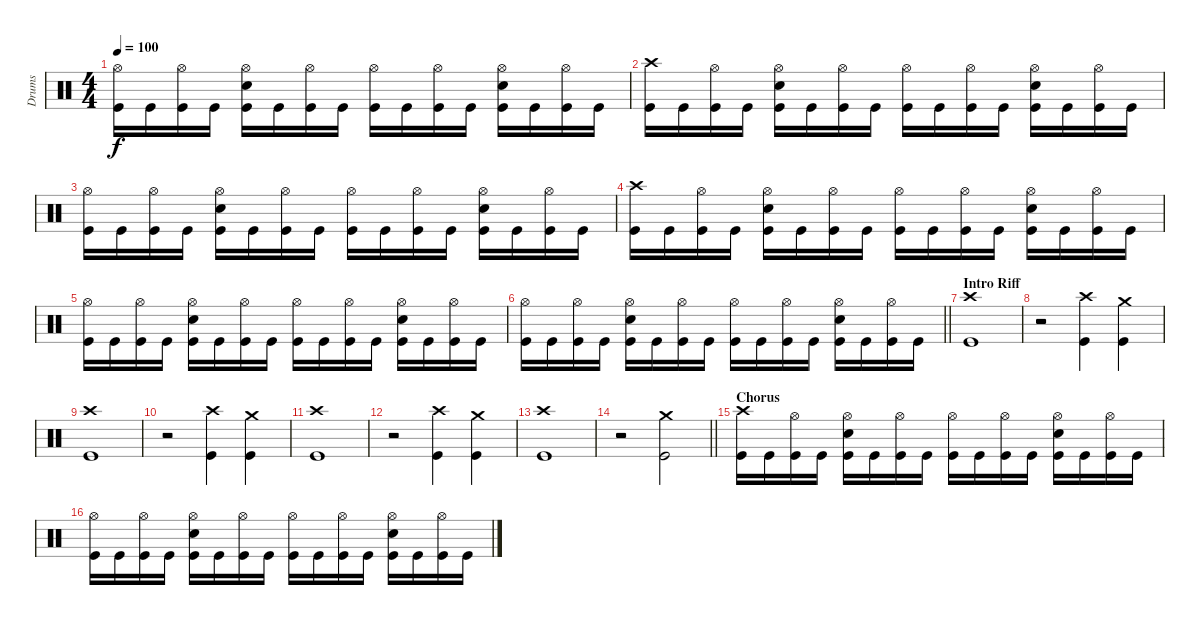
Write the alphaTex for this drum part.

\track ("Drums" "Drums") {instrument percussion}
\staff {score}
\articulation defaults
\ts (4 4)
\tempo 100
\clef neutral
\ks c
("Hi-Hat (open)" "Kick (hit)").16{dy f} "Kick (hit)".16 ("Hi-Hat (open)" "Kick (hit)").16 "Kick (hit)".16 ("Hi-Hat (open)" "Electric Snare (hit)" "Kick (hit)").16 "Kick (hit)".16 ("Hi-Hat (open)" "Kick (hit)").16 "Kick (hit)".16 ("Hi-Hat (open)" "Kick (hit)").16 "Kick (hit)".16 ("Hi-Hat (open)" "Kick (hit)").16 "Kick (hit)".16 ("Hi-Hat (open)" "Electric Snare (hit)" "Kick (hit)").16 "Kick (hit)".16 ("Hi-Hat (open)" "Kick (hit)").16 "Kick (hit)".16 |
("Crash high (hit)" "Kick (hit)").16 "Kick (hit)".16 ("Hi-Hat (open)" "Kick (hit)").16 "Kick (hit)".16 ("Hi-Hat (open)" "Electric Snare (hit)" "Kick (hit)").16 "Kick (hit)".16 ("Hi-Hat (open)" "Kick (hit)").16 "Kick (hit)".16 ("Hi-Hat (open)" "Kick (hit)").16 "Kick (hit)".16 ("Hi-Hat (open)" "Kick (hit)").16 "Kick (hit)".16 ("Hi-Hat (open)" "Electric Snare (hit)" "Kick (hit)").16 "Kick (hit)".16 ("Hi-Hat (open)" "Kick (hit)").16 "Kick (hit)".16 |
("Hi-Hat (open)" "Kick (hit)").16 "Kick (hit)".16 ("Hi-Hat (open)" "Kick (hit)").16 "Kick (hit)".16 ("Hi-Hat (open)" "Electric Snare (hit)" "Kick (hit)").16 "Kick (hit)".16 ("Hi-Hat (open)" "Kick (hit)").16 "Kick (hit)".16 ("Hi-Hat (open)" "Kick (hit)").16 "Kick (hit)".16 ("Hi-Hat (open)" "Kick (hit)").16 "Kick (hit)".16 ("Hi-Hat (open)" "Electric Snare (hit)" "Kick (hit)").16 "Kick (hit)".16 ("Hi-Hat (open)" "Kick (hit)").16 "Kick (hit)".16 |
("Crash high (hit)" "Kick (hit)").16 "Kick (hit)".16 ("Hi-Hat (open)" "Kick (hit)").16 "Kick (hit)".16 ("Hi-Hat (open)" "Electric Snare (hit)" "Kick (hit)").16 "Kick (hit)".16 ("Hi-Hat (open)" "Kick (hit)").16 "Kick (hit)".16 ("Hi-Hat (open)" "Kick (hit)").16 "Kick (hit)".16 ("Hi-Hat (open)" "Kick (hit)").16 "Kick (hit)".16 ("Hi-Hat (open)" "Electric Snare (hit)" "Kick (hit)").16 "Kick (hit)".16 ("Hi-Hat (open)" "Kick (hit)").16 "Kick (hit)".16 |
("Hi-Hat (open)" "Kick (hit)").16 "Kick (hit)".16 ("Hi-Hat (open)" "Kick (hit)").16 "Kick (hit)".16 ("Hi-Hat (open)" "Electric Snare (hit)" "Kick (hit)").16 "Kick (hit)".16 ("Hi-Hat (open)" "Kick (hit)").16 "Kick (hit)".16 ("Hi-Hat (open)" "Kick (hit)").16 "Kick (hit)".16 ("Hi-Hat (open)" "Kick (hit)").16 "Kick (hit)".16 ("Hi-Hat (open)" "Electric Snare (hit)" "Kick (hit)").16 "Kick (hit)".16 ("Hi-Hat (open)" "Kick (hit)").16 "Kick (hit)".16 |
\barLineRight lightlight
("Hi-Hat (open)" "Kick (hit)").16 "Kick (hit)".16 ("Hi-Hat (open)" "Kick (hit)").16 "Kick (hit)".16 ("Hi-Hat (open)" "Electric Snare (hit)" "Kick (hit)").16 "Kick (hit)".16 ("Hi-Hat (open)" "Kick (hit)").16 "Kick (hit)".16 ("Hi-Hat (open)" "Kick (hit)").16 "Kick (hit)".16 ("Hi-Hat (open)" "Kick (hit)").16 "Kick (hit)".16 ("Hi-Hat (open)" "Electric Snare (hit)" "Kick (hit)").16 "Kick (hit)".16 ("Hi-Hat (open)" "Kick (hit)").16 "Kick (hit)".16 |
\section ("" "Intro Riff")
("Crash high (hit)" "Kick (hit)").1 |
r.2 ("Crash high (hit)" "Kick (hit)").4 ("Crash medium (hit)" "Kick (hit)").4 |
("Crash high (hit)" "Kick (hit)").1 |
r.2 ("Crash high (hit)" "Kick (hit)").4 ("Crash medium (hit)" "Kick (hit)").4 |
("Crash high (hit)" "Kick (hit)").1 |
r.2 ("Crash high (hit)" "Kick (hit)").4 ("Crash medium (hit)" "Kick (hit)").4 |
("Crash high (hit)" "Kick (hit)").1 |
\barLineRight lightlight
r.2 ("Crash medium (hit)" "Kick (hit)").2 |
\section ("" "Chorus")
("Crash high (hit)" "Kick (hit)").16 "Kick (hit)".16 ("Hi-Hat (open)" "Kick (hit)").16 "Kick (hit)".16 ("Hi-Hat (open)" "Electric Snare (hit)" "Kick (hit)").16 "Kick (hit)".16 ("Hi-Hat (open)" "Kick (hit)").16 "Kick (hit)".16 ("Hi-Hat (open)" "Kick (hit)").16 "Kick (hit)".16 ("Hi-Hat (open)" "Kick (hit)").16 "Kick (hit)".16 ("Hi-Hat (open)" "Electric Snare (hit)" "Kick (hit)").16 "Kick (hit)".16 ("Hi-Hat (open)" "Kick (hit)").16 "Kick (hit)".16 |
("Hi-Hat (open)" "Kick (hit)").16 "Kick (hit)".16 ("Hi-Hat (open)" "Kick (hit)").16 "Kick (hit)".16 ("Hi-Hat (open)" "Electric Snare (hit)" "Kick (hit)").16 "Kick (hit)".16 ("Hi-Hat (open)" "Kick (hit)").16 "Kick (hit)".16 ("Hi-Hat (open)" "Kick (hit)").16 "Kick (hit)".16 ("Hi-Hat (open)" "Kick (hit)").16 "Kick (hit)".16 ("Hi-Hat (open)" "Electric Snare (hit)" "Kick (hit)").16 "Kick (hit)".16 ("Hi-Hat (open)" "Kick (hit)").16 "Kick (hit)".16
